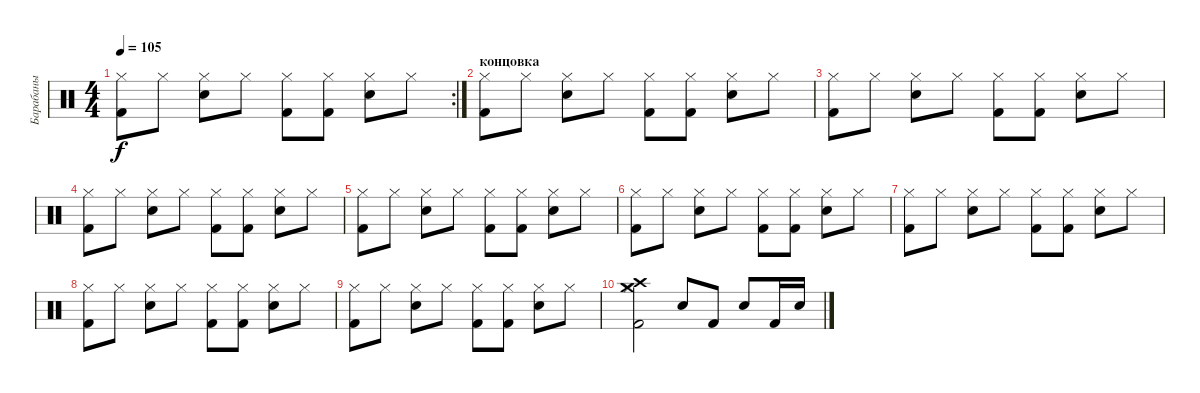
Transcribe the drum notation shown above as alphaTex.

\track ("Барабаны" "Барабаны") {instrument percussion}
\staff {score}
\articulation defaults
\rc 2
\ts (4 4)
\tempo 105
\clef neutral
\ks c
("Hi-Hat (closed)" "Kick (hit) 2").8{dy f} "Hi-Hat (closed)".8 ("Hi-Hat (closed)" "Electric Snare (hit)").8 "Hi-Hat (closed)".8 ("Hi-Hat (closed)" "Kick (hit) 2").8 ("Hi-Hat (closed)" "Kick (hit) 2").8 ("Hi-Hat (closed)" "Electric Snare (hit)").8 "Hi-Hat (closed)".8 |
\section ("" "концовка")
("Hi-Hat (closed)" "Kick (hit) 2").8 "Hi-Hat (closed)".8 ("Hi-Hat (closed)" "Electric Snare (hit)").8 "Hi-Hat (closed)".8 ("Hi-Hat (closed)" "Kick (hit) 2").8 ("Hi-Hat (closed)" "Kick (hit) 2").8 ("Hi-Hat (closed)" "Electric Snare (hit)").8 "Hi-Hat (closed)".8 |
("Hi-Hat (closed)" "Kick (hit) 2").8 "Hi-Hat (closed)".8 ("Hi-Hat (closed)" "Electric Snare (hit)").8 "Hi-Hat (closed)".8 ("Hi-Hat (closed)" "Kick (hit) 2").8 ("Hi-Hat (closed)" "Kick (hit) 2").8 ("Hi-Hat (closed)" "Electric Snare (hit)").8 "Hi-Hat (closed)".8 |
("Hi-Hat (closed)" "Kick (hit) 2").8 "Hi-Hat (closed)".8 ("Hi-Hat (closed)" "Electric Snare (hit)").8 "Hi-Hat (closed)".8 ("Hi-Hat (closed)" "Kick (hit) 2").8 ("Hi-Hat (closed)" "Kick (hit) 2").8 ("Hi-Hat (closed)" "Electric Snare (hit)").8 "Hi-Hat (closed)".8 |
("Hi-Hat (closed)" "Kick (hit) 2").8 "Hi-Hat (closed)".8 ("Hi-Hat (closed)" "Electric Snare (hit)").8 "Hi-Hat (closed)".8 ("Hi-Hat (closed)" "Kick (hit) 2").8 ("Hi-Hat (closed)" "Kick (hit) 2").8 ("Hi-Hat (closed)" "Electric Snare (hit)").8 "Hi-Hat (closed)".8 |
("Hi-Hat (closed)" "Kick (hit) 2").8 "Hi-Hat (closed)".8 ("Hi-Hat (closed)" "Electric Snare (hit)").8 "Hi-Hat (closed)".8 ("Hi-Hat (closed)" "Kick (hit) 2").8 ("Hi-Hat (closed)" "Kick (hit) 2").8 ("Hi-Hat (closed)" "Electric Snare (hit)").8 "Hi-Hat (closed)".8 |
("Hi-Hat (closed)" "Kick (hit) 2").8 "Hi-Hat (closed)".8 ("Hi-Hat (closed)" "Electric Snare (hit)").8 "Hi-Hat (closed)".8 ("Hi-Hat (closed)" "Kick (hit) 2").8 ("Hi-Hat (closed)" "Kick (hit) 2").8 ("Hi-Hat (closed)" "Electric Snare (hit)").8 "Hi-Hat (closed)".8 |
("Hi-Hat (closed)" "Kick (hit) 2").8 "Hi-Hat (closed)".8 ("Hi-Hat (closed)" "Electric Snare (hit)").8 "Hi-Hat (closed)".8 ("Hi-Hat (closed)" "Kick (hit) 2").8 ("Hi-Hat (closed)" "Kick (hit) 2").8 ("Hi-Hat (closed)" "Electric Snare (hit)").8 "Hi-Hat (closed)".8 |
("Hi-Hat (closed)" "Kick (hit) 2").8 "Hi-Hat (closed)".8 ("Hi-Hat (closed)" "Electric Snare (hit)").8 "Hi-Hat (closed)".8 ("Hi-Hat (closed)" "Kick (hit) 2").8 ("Hi-Hat (closed)" "Kick (hit) 2").8 ("Hi-Hat (closed)" "Electric Snare (hit)").8 "Hi-Hat (closed)".8 |
("Kick (hit) 2" "Crash high (hit)" "Hi-Hat (closed)" "Crash medium (hit)").2 "Electric Snare (hit)".8 "Kick (hit) 2".8 "Electric Snare (hit)".8 "Kick (hit) 2".16 "Electric Snare (hit)".16
